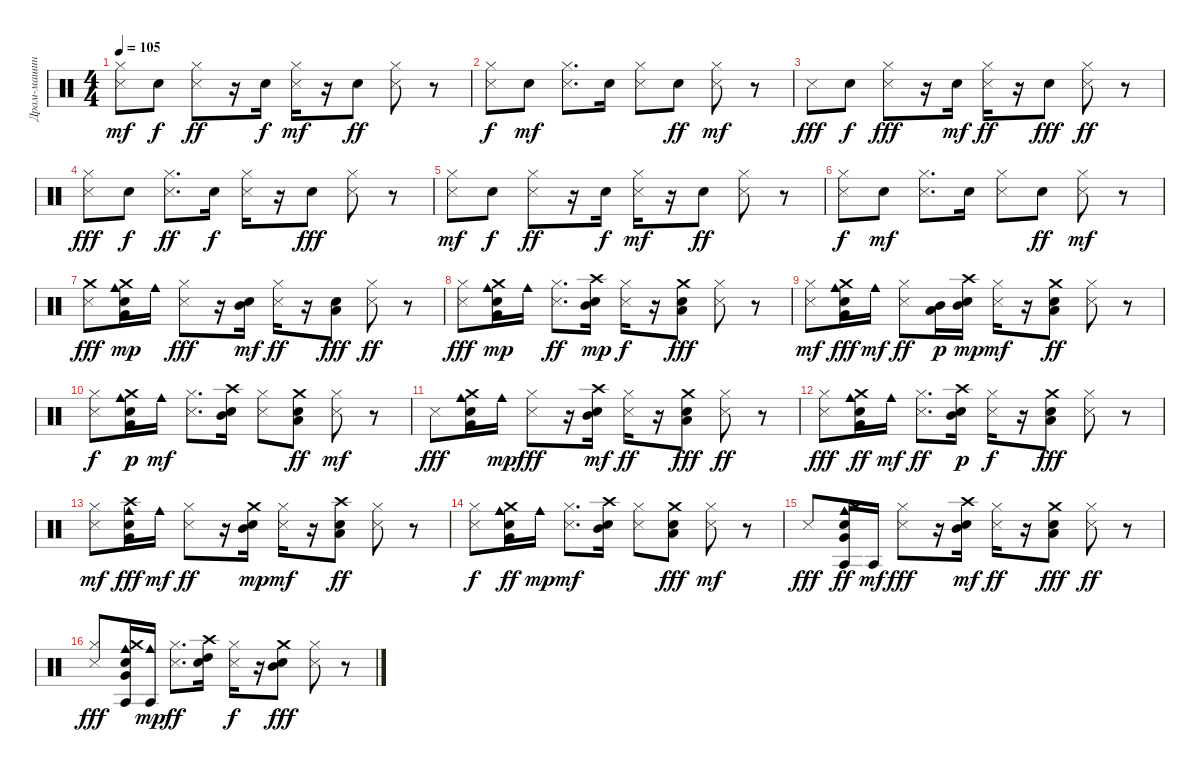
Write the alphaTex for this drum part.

\track ("Драм-машина" "Драм-машин") {instrument percussion}
\staff {score}
\articulation defaults
\ts (4 4)
\tempo 105
\clef neutral
\ks c
("Metronome (hit)" "Hi-Hat (closed)").8{dy mf} "Snare (hit) 2".8{dy f} ("Metronome (hit)" "Hi-Hat (closed)").8{dy ff} r.16 "Snare (hit) 2".16{dy f} ("Metronome (hit)" "Hi-Hat (closed)").16{dy mf} r.16 "Snare (hit) 2".8{dy ff} ("Metronome (hit)" "Hi-Hat (closed)").8 r.8 |
("Metronome (hit)" "Hi-Hat (closed)").8{dy f} "Snare (hit) 2".8{dy mf} ("Metronome (hit)" "Hi-Hat (closed)").8{d} "Snare (hit) 2".16 ("Metronome (hit)" "Hi-Hat (closed)").8 "Snare (hit) 2".8{dy ff} ("Metronome (hit)" "Hi-Hat (closed)").8{dy mf} r.8 |
"Metronome (hit)".8{dy fff} "Snare (hit) 2".8{dy f} ("Metronome (hit)" "Hi-Hat (closed)").8{dy fff} r.16 "Snare (hit) 2".16{dy mf} ("Metronome (hit)" "Hi-Hat (closed)").16{dy ff} r.16 "Snare (hit) 2".8{dy fff} ("Metronome (hit)" "Hi-Hat (closed)").8{dy ff} r.8 |
("Metronome (hit)" "Hi-Hat (closed)").8{dy fff} "Snare (hit) 2".8{dy f} ("Metronome (hit)" "Hi-Hat (closed)").8{d dy ff} "Snare (hit) 2".16{dy f} ("Metronome (hit)" "Hi-Hat (closed)").16 r.16 "Snare (hit) 2".8{dy fff} ("Metronome (hit)" "Hi-Hat (closed)").8 r.8 |
("Metronome (hit)" "Hi-Hat (closed)").8{dy mf} "Snare (hit) 2".8{dy f} ("Metronome (hit)" "Hi-Hat (closed)").8{dy ff} r.16 "Snare (hit) 2".16{dy f} ("Metronome (hit)" "Hi-Hat (closed)").16{dy mf} r.16 "Snare (hit) 2".8{dy ff} ("Metronome (hit)" "Hi-Hat (closed)").8 r.8 |
("Metronome (hit)" "Hi-Hat (closed)").8{dy f} "Snare (hit) 2".8{dy mf} ("Metronome (hit)" "Hi-Hat (closed)").8{d} "Snare (hit) 2".16 ("Metronome (hit)" "Hi-Hat (closed)").8 "Snare (hit) 2".8{dy ff} ("Metronome (hit)" "Hi-Hat (closed)").8{dy mf} r.8 |
("Crash medium (hit)" "Metronome (hit)").8{dy fff} ("Very Low Tom (hit)" "Snare (hit) 2" "Crash medium (hit)" "Cowbell medium (hit)").16{dy mp} "Cowbell medium (hit)".16 ("Metronome (hit)" "Hi-Hat (closed)").8{dy fff} r.16 ("Mid Tom (hit)" "Snare (hit) 2").16{dy mf} ("Metronome (hit)" "Hi-Hat (closed)").16{dy ff} r.16 ("Low Tom (hit)" "Snare (hit) 2").8{dy fff} ("Metronome (hit)" "Hi-Hat (closed)").8{dy ff} r.8 |
("Metronome (hit)" "Hi-Hat (closed)").8{dy fff} ("Snare (hit) 2" "Very Low Tom (hit)" "Crash medium (hit)" "Cowbell medium (hit)").16{dy mp} "Cowbell medium (hit)".16 ("Metronome (hit)" "Hi-Hat (closed)").8{d dy ff} ("Mid Tom (hit)" "Crash high (hit)" "Snare (hit) 2").16{dy mp} ("Metronome (hit)" "Hi-Hat (closed)").16{dy f} r.16 ("Crash medium (hit)" "Low Tom (hit)" "Snare (hit) 2").8{dy fff} ("Metronome (hit)" "Hi-Hat (closed)").8 r.8 |
("Metronome (hit)" "Hi-Hat (closed)").8{dy mf} ("Snare (hit) 2" "Crash medium (hit)" "Very Low Tom (hit)" "Cowbell medium (hit)").16{dy fff} "Cowbell medium (hit)".16{dy mf} ("Metronome (hit)" "Hi-Hat (closed)").8{dy ff} ("Mid Tom (hit)" "Low Tom (hit)").16{dy p} ("Crash high (hit)" "Snare (hit) 2" "Mid Tom (hit)").16{dy mp} ("Metronome (hit)" "Hi-Hat (closed)").16{dy mf} r.16 ("Crash medium (hit)" "Low Tom (hit)" "Snare (hit) 2").8{dy ff} ("Metronome (hit)" "Hi-Hat (closed)").8 r.8 |
("Metronome (hit)" "Hi-Hat (closed)").8{dy f} ("Snare (hit) 2" "Very Low Tom (hit)" "Crash medium (hit)" "Cowbell medium (hit)").16{dy p} "Cowbell medium (hit)".16{dy mf} ("Metronome (hit)" "Hi-Hat (closed)").8{d} ("Crash high (hit)" "Mid Tom (hit)" "Snare (hit) 2").16 ("Metronome (hit)" "Hi-Hat (closed)").8 ("Crash medium (hit)" "Low Tom (hit)" "Snare (hit) 2").8{dy ff} ("Metronome (hit)" "Hi-Hat (closed)").8{dy mf} r.8 |
"Metronome (hit)".8{dy fff} ("Crash medium (hit)" "Snare (hit) 2" "Very Low Tom (hit)" "Cowbell medium (hit)").16 "Cowbell medium (hit)".16{dy mp} ("Metronome (hit)" "Hi-Hat (closed)").8{dy fff} r.16 ("Mid Tom (hit)" "Crash high (hit)" "Snare (hit) 2").16{dy mf} ("Metronome (hit)" "Hi-Hat (closed)").16{dy ff} r.16 ("Crash medium (hit)" "Snare (hit) 2" "Low Tom (hit)").8{dy fff} ("Metronome (hit)" "Hi-Hat (closed)").8{dy ff} r.8 |
("Metronome (hit)" "Hi-Hat (closed)").8{dy fff} ("Snare (hit) 2" "Crash medium (hit)" "Very Low Tom (hit)" "Cowbell medium (hit)").16{dy ff} "Cowbell medium (hit)".16{dy mf} ("Metronome (hit)" "Hi-Hat (closed)").8{d dy ff} ("Mid Tom (hit)" "Crash high (hit)" "Snare (hit) 2").16{dy p} ("Metronome (hit)" "Hi-Hat (closed)").16{dy f} r.16 ("Crash medium (hit)" "Snare (hit) 2" "Low Tom (hit)").8{dy fff} ("Metronome (hit)" "Hi-Hat (closed)").8 r.8 |
("Metronome (hit)" "Hi-Hat (closed)").8{dy mf} ("Snare (hit) 2" "Crash high (hit)" "Very Low Tom (hit)" "Cowbell medium (hit)").16{dy fff} "Cowbell medium (hit)".16{dy mf} ("Metronome (hit)" "Hi-Hat (closed)").8{dy ff} r.16 ("Mid Tom (hit)" "Crash medium (hit)" "Snare (hit) 2").16{dy mp} ("Metronome (hit)" "Hi-Hat (closed)").16{dy mf} r.16 ("Low Tom (hit)" "Crash high (hit)" "Snare (hit) 2").8{dy ff} ("Metronome (hit)" "Hi-Hat (closed)").8 r.8 |
("Metronome (hit)" "Hi-Hat (closed)").8{dy f} ("Snare (hit) 2" "Crash medium (hit)" "Very Low Tom (hit)" "Cowbell medium (hit)").16{dy ff} "Cowbell medium (hit)".16{dy mp} ("Metronome (hit)" "Hi-Hat (closed)").8{d dy mf} ("Crash high (hit)" "Mid Tom (hit)" "Snare (hit) 2").16 ("Metronome (hit)" "Hi-Hat (closed)").8 ("Crash medium (hit)" "Snare (hit) 2" "Low Tom (hit)").8{dy fff} ("Metronome (hit)" "Hi-Hat (closed)").8{dy mf} r.8 |
"Metronome (hit)".8{dy fff} ("Crash medium (hit)" "Very Low Tom (hit)" "Snare (hit) 2" "Agogo tow (hit)" "Cowbell medium (hit)").16{dy ff} "Agogo tow (hit)".16{dy mf} ("Metronome (hit)" "Hi-Hat (closed)").8{dy fff} r.16 ("Mid Tom (hit)" "Crash high (hit)" "Snare (hit) 2").16{dy mf} ("Metronome (hit)" "Hi-Hat (closed)").16{dy ff} r.16 ("Crash medium (hit)" "Snare (hit) 2" "Low Tom (hit)").8{dy fff} ("Metronome (hit)" "Hi-Hat (closed)").8{dy ff} r.8 |
("Metronome (hit)" "Hi-Hat (closed)").8{dy fff} ("Agogo tow (hit)" "Crash medium (hit)" "Snare (hit) 2" "Very Low Tom (hit)" "Cowbell medium (hit)").16 ("Agogo tow (hit)" "Cowbell medium (hit)").16{dy mp} ("Metronome (hit)" "Hi-Hat (closed)").8{d dy ff} ("Crash high (hit)" "High Tom (hit)" "Snare (hit) 2").16 ("Metronome (hit)" "Hi-Hat (closed)").16{dy f} r.16 ("Crash medium (hit)" "Mid Tom (hit)" "Snare (hit) 2").8{dy fff} ("Metronome (hit)" "Hi-Hat (closed)").8 r.8
